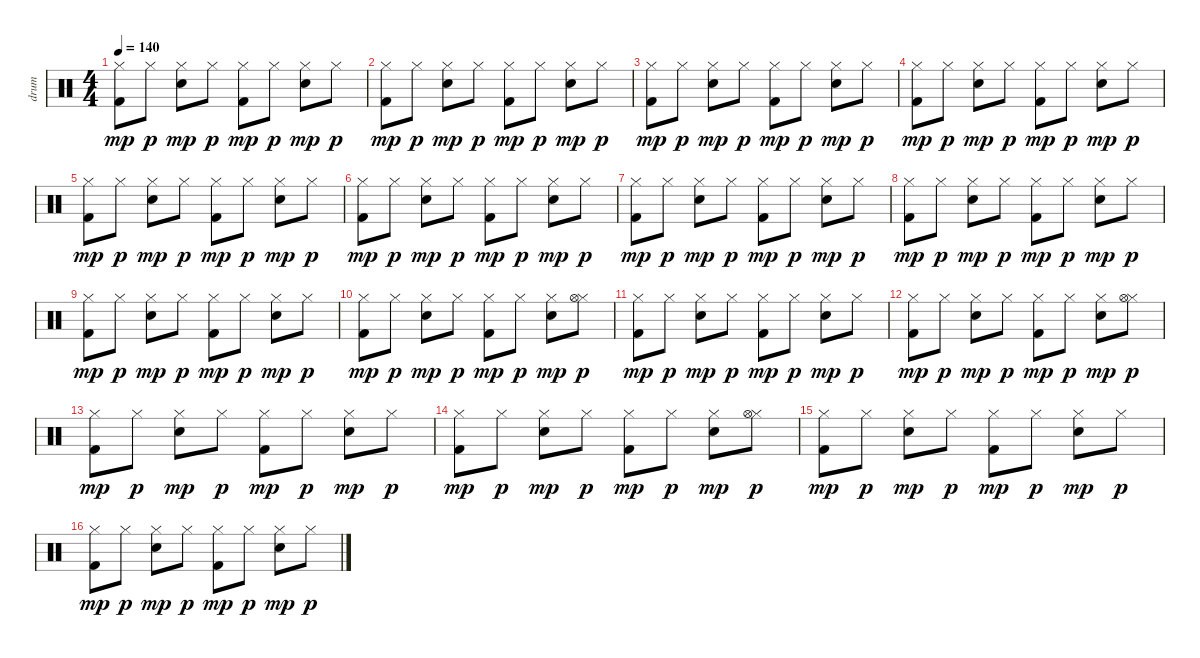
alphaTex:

\track ("drum" "drum") {instrument percussion}
\staff {score}
\articulation defaults
\ts (4 4)
\tempo 140
\clef neutral
\ks c
("Hi-Hat (closed)" "Kick (hit) 2").8{dy mp} "Hi-Hat (closed)".8{dy p} ("Hi-Hat (closed)" "Snare (hit) 2").8{dy mp} "Hi-Hat (closed)".8{dy p} ("Hi-Hat (closed)" "Kick (hit) 2").8{dy mp} "Hi-Hat (closed)".8{dy p} ("Hi-Hat (closed)" "Snare (hit) 2").8{dy mp} "Hi-Hat (closed)".8{dy p} |
("Hi-Hat (closed)" "Kick (hit) 2").8{dy mp} "Hi-Hat (closed)".8{dy p} ("Hi-Hat (closed)" "Snare (hit) 2").8{dy mp} "Hi-Hat (closed)".8{dy p} ("Hi-Hat (closed)" "Kick (hit) 2").8{dy mp} "Hi-Hat (closed)".8{dy p} ("Hi-Hat (closed)" "Snare (hit) 2").8{dy mp} "Hi-Hat (closed)".8{dy p} |
("Hi-Hat (closed)" "Kick (hit) 2").8{dy mp} "Hi-Hat (closed)".8{dy p} ("Hi-Hat (closed)" "Snare (hit) 2").8{dy mp} "Hi-Hat (closed)".8{dy p} ("Hi-Hat (closed)" "Kick (hit) 2").8{dy mp} "Hi-Hat (closed)".8{dy p} ("Hi-Hat (closed)" "Snare (hit) 2").8{dy mp} "Hi-Hat (closed)".8{dy p} |
("Hi-Hat (closed)" "Kick (hit) 2").8{dy mp} "Hi-Hat (closed)".8{dy p} ("Hi-Hat (closed)" "Snare (hit) 2").8{dy mp} "Hi-Hat (closed)".8{dy p} ("Hi-Hat (closed)" "Kick (hit) 2").8{dy mp} "Hi-Hat (closed)".8{dy p} ("Hi-Hat (closed)" "Snare (hit) 2").8{dy mp} "Hi-Hat (closed)".8{dy p} |
("Hi-Hat (closed)" "Kick (hit) 2").8{dy mp} "Hi-Hat (closed)".8{dy p} ("Hi-Hat (closed)" "Snare (hit) 2").8{dy mp} "Hi-Hat (closed)".8{dy p} ("Hi-Hat (closed)" "Kick (hit) 2").8{dy mp} "Hi-Hat (closed)".8{dy p} ("Hi-Hat (closed)" "Snare (hit) 2").8{dy mp} "Hi-Hat (closed)".8{dy p} |
("Hi-Hat (closed)" "Kick (hit) 2").8{dy mp} "Hi-Hat (closed)".8{dy p} ("Hi-Hat (closed)" "Snare (hit) 2").8{dy mp} "Hi-Hat (closed)".8{dy p} ("Hi-Hat (closed)" "Kick (hit) 2").8{dy mp} "Hi-Hat (closed)".8{dy p} ("Hi-Hat (closed)" "Snare (hit) 2").8{dy mp} "Hi-Hat (closed)".8{dy p} |
("Hi-Hat (closed)" "Kick (hit) 2").8{dy mp} "Hi-Hat (closed)".8{dy p} ("Hi-Hat (closed)" "Snare (hit) 2").8{dy mp} "Hi-Hat (closed)".8{dy p} ("Hi-Hat (closed)" "Kick (hit) 2").8{dy mp} "Hi-Hat (closed)".8{dy p} ("Hi-Hat (closed)" "Snare (hit) 2").8{dy mp} "Hi-Hat (closed)".8{dy p} |
("Hi-Hat (closed)" "Kick (hit) 2").8{dy mp} "Hi-Hat (closed)".8{dy p} ("Hi-Hat (closed)" "Snare (hit) 2").8{dy mp} "Hi-Hat (closed)".8{dy p} ("Hi-Hat (closed)" "Kick (hit) 2").8{dy mp} "Hi-Hat (closed)".8{dy p} ("Hi-Hat (closed)" "Snare (hit) 2").8{dy mp} "Hi-Hat (closed)".8{dy p} |
("Hi-Hat (closed)" "Kick (hit) 2").8{dy mp} "Hi-Hat (closed)".8{dy p} ("Hi-Hat (closed)" "Snare (hit) 2").8{dy mp} "Hi-Hat (closed)".8{dy p} ("Hi-Hat (closed)" "Kick (hit) 2").8{dy mp} "Hi-Hat (closed)".8{dy p} ("Hi-Hat (closed)" "Snare (hit) 2").8{dy mp} "Hi-Hat (closed)".8{dy p} |
("Hi-Hat (closed)" "Kick (hit) 2").8{dy mp} "Hi-Hat (closed)".8{dy p} ("Hi-Hat (closed)" "Snare (hit) 2").8{dy mp} "Hi-Hat (closed)".8{dy p} ("Hi-Hat (closed)" "Kick (hit) 2").8{dy mp} "Hi-Hat (closed)".8{dy p} ("Hi-Hat (closed)" "Snare (hit) 2").8{dy mp} ("Hi-Hat (closed)" "Hi-Hat (open)").8{dy p} |
("Hi-Hat (closed)" "Kick (hit) 2").8{dy mp} "Hi-Hat (closed)".8{dy p} ("Hi-Hat (closed)" "Snare (hit) 2").8{dy mp} "Hi-Hat (closed)".8{dy p} ("Hi-Hat (closed)" "Kick (hit) 2").8{dy mp} "Hi-Hat (closed)".8{dy p} ("Hi-Hat (closed)" "Snare (hit) 2").8{dy mp} "Hi-Hat (closed)".8{dy p} |
("Hi-Hat (closed)" "Kick (hit) 2").8{dy mp} "Hi-Hat (closed)".8{dy p} ("Hi-Hat (closed)" "Snare (hit) 2").8{dy mp} "Hi-Hat (closed)".8{dy p} ("Hi-Hat (closed)" "Kick (hit) 2").8{dy mp} "Hi-Hat (closed)".8{dy p} ("Hi-Hat (closed)" "Snare (hit) 2").8{dy mp} ("Hi-Hat (closed)" "Hi-Hat (open)").8{dy p} |
("Hi-Hat (closed)" "Kick (hit) 2").8{dy mp} "Hi-Hat (closed)".8{dy p} ("Hi-Hat (closed)" "Snare (hit) 2").8{dy mp} "Hi-Hat (closed)".8{dy p} ("Hi-Hat (closed)" "Kick (hit) 2").8{dy mp} "Hi-Hat (closed)".8{dy p} ("Hi-Hat (closed)" "Snare (hit) 2").8{dy mp} "Hi-Hat (closed)".8{dy p} |
("Hi-Hat (closed)" "Kick (hit) 2").8{dy mp} "Hi-Hat (closed)".8{dy p} ("Hi-Hat (closed)" "Snare (hit) 2").8{dy mp} "Hi-Hat (closed)".8{dy p} ("Hi-Hat (closed)" "Kick (hit) 2").8{dy mp} "Hi-Hat (closed)".8{dy p} ("Hi-Hat (closed)" "Snare (hit) 2").8{dy mp} ("Hi-Hat (closed)" "Hi-Hat (open)").8{dy p} |
("Hi-Hat (closed)" "Kick (hit) 2").8{dy mp} "Hi-Hat (closed)".8{dy p} ("Hi-Hat (closed)" "Snare (hit) 2").8{dy mp} "Hi-Hat (closed)".8{dy p} ("Hi-Hat (closed)" "Kick (hit) 2").8{dy mp} "Hi-Hat (closed)".8{dy p} ("Hi-Hat (closed)" "Snare (hit) 2").8{dy mp} "Hi-Hat (closed)".8{dy p} |
("Hi-Hat (closed)" "Kick (hit) 2").8{dy mp} "Hi-Hat (closed)".8{dy p} ("Hi-Hat (closed)" "Snare (hit) 2").8{dy mp} "Hi-Hat (closed)".8{dy p} ("Hi-Hat (closed)" "Kick (hit) 2").8{dy mp} "Hi-Hat (closed)".8{dy p} ("Hi-Hat (closed)" "Snare (hit) 2").8{dy mp} "Hi-Hat (closed)".8{dy p}
